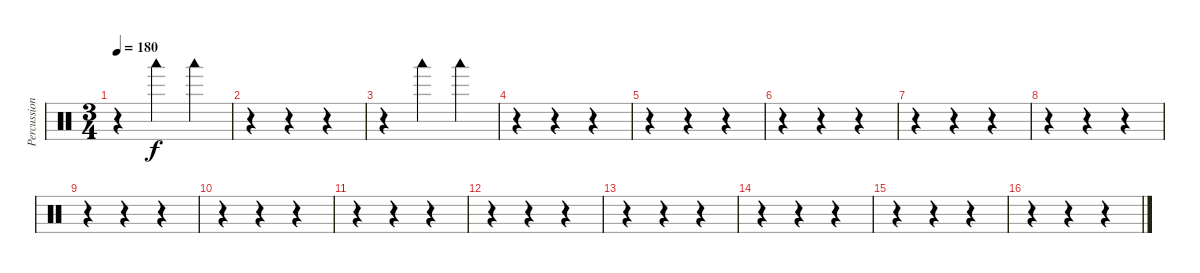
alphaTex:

\track ("Percussions" "Percussion") {instrument percussion}
\staff {score}
\articulation defaults
\ts (3 4)
\tempo 180
\clef neutral
\ks c
r.4{dy f} "Woodblock low (hit)".4 "Woodblock low (hit)".4 |
r.4 r.4 r.4 |
r.4 "Woodblock low (hit)".4 "Woodblock low (hit)".4 |
r.4 r.4 r.4 |
r.4 r.4 r.4 |
r.4 r.4 r.4 |
r.4 r.4 r.4 |
r.4 r.4 r.4 |
r.4 r.4 r.4 |
r.4 r.4 r.4 |
r.4 r.4 r.4 |
r.4 r.4 r.4 |
r.4 r.4 r.4 |
r.4 r.4 r.4 |
r.4 r.4 r.4 |
r.4 r.4 r.4
